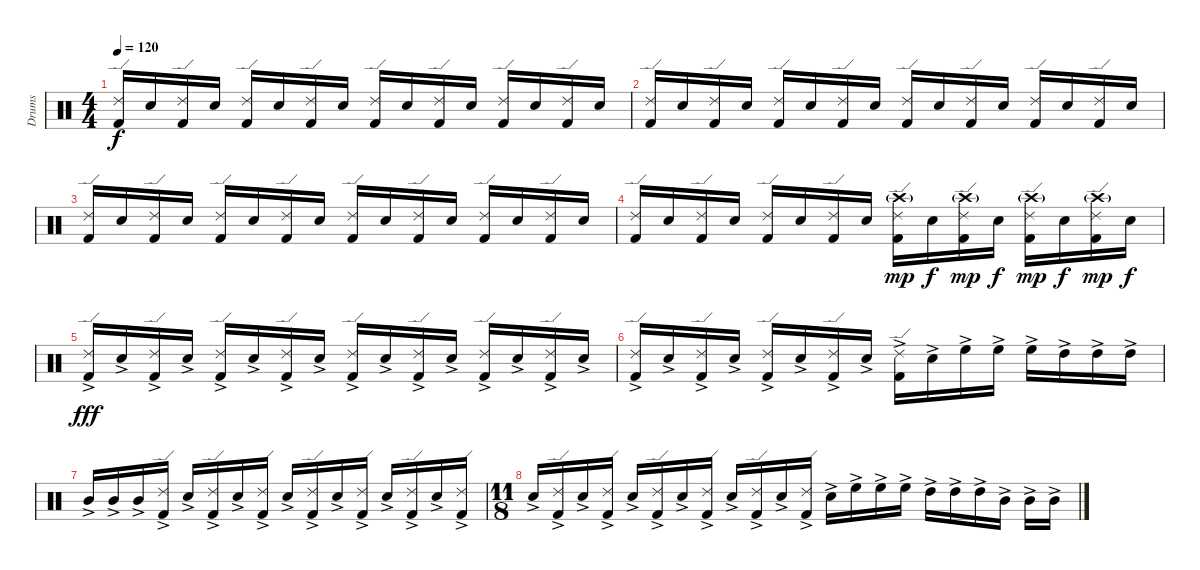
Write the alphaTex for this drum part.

\track ("Drums" "Drums") {instrument percussion}
\staff {score}
\articulation defaults
\ts (4 4)
\tempo 120
\clef neutral
\ks c
("Ride (edge) 2" "Kick (hit) 2").16{dy f} "Electric Snare (hit)".16 ("Ride (edge) 2" "Kick (hit) 2").16 "Electric Snare (hit)".16 ("Ride (edge) 2" "Kick (hit) 2").16 "Electric Snare (hit)".16 ("Ride (edge) 2" "Kick (hit) 2").16 "Electric Snare (hit)".16 ("Ride (edge) 2" "Kick (hit) 2").16 "Electric Snare (hit)".16 ("Ride (edge) 2" "Kick (hit) 2").16 "Electric Snare (hit)".16 ("Ride (edge) 2" "Kick (hit) 2").16 "Electric Snare (hit)".16 ("Ride (edge) 2" "Kick (hit) 2").16 "Electric Snare (hit)".16 |
("Ride (edge) 2" "Kick (hit) 2").16 "Electric Snare (hit)".16 ("Ride (edge) 2" "Kick (hit) 2").16 "Electric Snare (hit)".16 ("Ride (edge) 2" "Kick (hit) 2").16 "Electric Snare (hit)".16 ("Ride (edge) 2" "Kick (hit) 2").16 "Electric Snare (hit)".16 ("Ride (edge) 2" "Kick (hit) 2").16 "Electric Snare (hit)".16 ("Ride (edge) 2" "Kick (hit) 2").16 "Electric Snare (hit)".16 ("Ride (edge) 2" "Kick (hit) 2").16 "Electric Snare (hit)".16 ("Ride (edge) 2" "Kick (hit) 2").16 "Electric Snare (hit)".16 |
("Ride (edge) 2" "Kick (hit) 2").16 "Electric Snare (hit)".16 ("Ride (edge) 2" "Kick (hit) 2").16 "Electric Snare (hit)".16 ("Ride (edge) 2" "Kick (hit) 2").16 "Electric Snare (hit)".16 ("Ride (edge) 2" "Kick (hit) 2").16 "Electric Snare (hit)".16 ("Ride (edge) 2" "Kick (hit) 2").16 "Electric Snare (hit)".16 ("Ride (edge) 2" "Kick (hit) 2").16 "Electric Snare (hit)".16 ("Ride (edge) 2" "Kick (hit) 2").16 "Electric Snare (hit)".16 ("Ride (edge) 2" "Kick (hit) 2").16 "Electric Snare (hit)".16 |
("Ride (edge) 2" "Kick (hit) 2").16 "Electric Snare (hit)".16 ("Ride (edge) 2" "Kick (hit) 2").16 "Electric Snare (hit)".16 ("Ride (edge) 2" "Kick (hit) 2").16 "Electric Snare (hit)".16 ("Ride (edge) 2" "Kick (hit) 2").16 "Electric Snare (hit)".16 ("Ride (edge) 2" "Kick (hit) 2" "Crash high (hit)"{g}).16{dy mp} "Electric Snare (hit)".16{dy f} ("Ride (edge) 2" "Kick (hit) 2" "Crash high (hit)"{g}).16{dy mp} "Electric Snare (hit)".16{dy f} ("Ride (edge) 2" "Kick (hit) 2" "Crash high (hit)"{g}).16{dy mp} "Electric Snare (hit)".16{dy f} ("Ride (edge) 2" "Kick (hit) 2" "Crash high (hit)"{g}).16{dy mp} "Electric Snare (hit)".16{dy f} |
("Ride (edge) 2"{ac} "Kick (hit) 2"{ac}).16{dy fff} "Electric Snare (hit)"{ac}.16 ("Ride (edge) 2"{ac} "Kick (hit) 2"{ac}).16 "Electric Snare (hit)"{ac}.16 ("Ride (edge) 2"{ac} "Kick (hit) 2"{ac}).16 "Electric Snare (hit)"{ac}.16 ("Ride (edge) 2"{ac} "Kick (hit) 2"{ac}).16 "Electric Snare (hit)"{ac}.16 ("Ride (edge) 2"{ac} "Kick (hit) 2"{ac}).16 "Electric Snare (hit)"{ac}.16 ("Ride (edge) 2"{ac} "Kick (hit) 2"{ac}).16 "Electric Snare (hit)"{ac}.16 ("Ride (edge) 2"{ac} "Kick (hit) 2"{ac}).16 "Electric Snare (hit)"{ac}.16 ("Ride (edge) 2"{ac} "Kick (hit) 2"{ac}).16 "Electric Snare (hit)"{ac}.16 |
("Ride (edge) 2"{ac} "Kick (hit) 2"{ac}).16 "Electric Snare (hit)"{ac}.16 ("Ride (edge) 2"{ac} "Kick (hit) 2"{ac}).16 "Electric Snare (hit)"{ac}.16 ("Ride (edge) 2"{ac} "Kick (hit) 2"{ac}).16 "Electric Snare (hit)"{ac}.16 ("Ride (edge) 2"{ac} "Kick (hit) 2"{ac}).16 "Electric Snare (hit)"{ac}.16 ("Ride (edge) 2"{ac} "Kick (hit) 2"{ac}).16 "Electric Snare (hit)"{ac}.16 "High Floor Tom (hit)"{ac}.16 "High Floor Tom (hit)"{ac}.16 "High Floor Tom (hit)"{ac}.16 "High Tom (hit)"{ac}.16 "High Tom (hit)"{ac}.16 "High Tom (hit)"{ac}.16 |
"Mid Tom (hit)"{ac}.16 "Mid Tom (hit)"{ac}.16 "Mid Tom (hit)"{ac}.16 ("Ride (edge) 2"{ac} "Kick (hit) 2"{ac}).16 "Electric Snare (hit)"{ac}.16 ("Ride (edge) 2"{ac} "Kick (hit) 2"{ac}).16 "Electric Snare (hit)"{ac}.16 ("Ride (edge) 2"{ac} "Kick (hit) 2"{ac}).16 "Electric Snare (hit)"{ac}.16 ("Ride (edge) 2"{ac} "Kick (hit) 2"{ac}).16 "Electric Snare (hit)"{ac}.16 ("Ride (edge) 2"{ac} "Kick (hit) 2"{ac}).16 "Electric Snare (hit)"{ac}.16 ("Ride (edge) 2"{ac} "Kick (hit) 2"{ac}).16 "Electric Snare (hit)"{ac}.16 ("Ride (edge) 2"{ac} "Kick (hit) 2"{ac}).16 |
\ts (11 8)
"Electric Snare (hit)"{ac}.16 ("Ride (edge) 2"{ac} "Kick (hit) 2"{ac}).16 "Electric Snare (hit)"{ac}.16 ("Ride (edge) 2"{ac} "Kick (hit) 2"{ac}).16 "Electric Snare (hit)"{ac}.16 ("Ride (edge) 2"{ac} "Kick (hit) 2"{ac}).16 "Electric Snare (hit)"{ac}.16 ("Ride (edge) 2"{ac} "Kick (hit) 2"{ac}).16 "Electric Snare (hit)"{ac}.16 ("Ride (edge) 2"{ac} "Kick (hit) 2"{ac}).16 "Electric Snare (hit)"{ac}.16 ("Ride (edge) 2"{ac} "Kick (hit) 2"{ac}).16 "Electric Snare (hit)"{ac}.16 "High Floor Tom (hit)"{ac}.16 "High Floor Tom (hit)"{ac}.16 "High Floor Tom (hit)"{ac}.16 "High Tom (hit)"{ac}.16 "High Tom (hit)"{ac}.16 "High Tom (hit)"{ac}.16 "Mid Tom (hit)"{ac}.16 "Mid Tom (hit)"{ac}.16 "Mid Tom (hit)"{ac}.16
